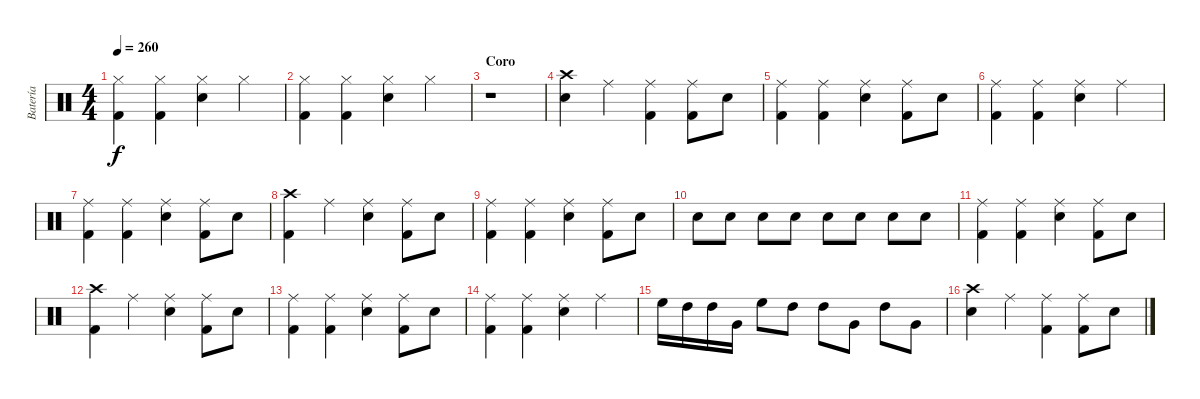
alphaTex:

\track ("Batería" "Batería") {instrument percussion}
\staff {score}
\articulation defaults
\ts (4 4)
\tempo 260
\clef neutral
\ks c
("Kick (hit) 2" "Hi-Hat (closed)").4{dy f} ("Kick (hit) 2" "Hi-Hat (closed)").4 ("Snare (hit) 2" "Hi-Hat (closed)").4 "Hi-Hat (closed)".4 |
("Kick (hit) 2" "Hi-Hat (closed)").4 ("Kick (hit) 2" "Hi-Hat (closed)").4 ("Snare (hit) 2" "Hi-Hat (closed)").4 "Hi-Hat (closed)".4 |
\section ("" "Coro")
r.1 |
("Snare (hit) 2" "Crash high (hit)").4 "Ride (middle)".4 ("Kick (hit) 2" "Ride (middle)").4 ("Kick (hit) 2" "Ride (middle)").8 "Snare (hit) 2".8 |
("Kick (hit) 2" "Ride (middle)").4 ("Kick (hit) 2" "Ride (middle)").4 ("Snare (hit) 2" "Ride (middle)").4 ("Kick (hit) 2" "Ride (middle)").8 "Snare (hit) 2".8 |
("Kick (hit) 2" "Ride (middle)").4 ("Kick (hit) 2" "Ride (middle)").4 ("Snare (hit) 2" "Ride (middle)").4 "Ride (middle)".4 |
("Kick (hit) 2" "Ride (middle)").4 ("Kick (hit) 2" "Ride (middle)").4 ("Snare (hit) 2" "Ride (middle)").4 ("Kick (hit) 2" "Ride (middle)").8 "Snare (hit) 2".8 |
("Kick (hit) 2" "Crash high (hit)").4 "Ride (middle)".4 ("Snare (hit) 2" "Ride (middle)").4 ("Kick (hit) 2" "Ride (middle)").8 "Snare (hit) 2".8 |
("Kick (hit) 2" "Ride (middle)").4 ("Kick (hit) 2" "Ride (middle)").4 ("Snare (hit) 2" "Ride (middle)").4 ("Kick (hit) 2" "Ride (middle)").8 "Snare (hit) 2".8 |
"Snare (hit) 2".8 "Snare (hit) 2".8 "Snare (hit) 2".8 "Snare (hit) 2".8 "Snare (hit) 2".8 "Snare (hit) 2".8 "Snare (hit) 2".8 "Snare (hit) 2".8 |
("Kick (hit) 2" "Ride (middle)").4 ("Kick (hit) 2" "Ride (middle)").4 ("Snare (hit) 2" "Ride (middle)").4 ("Kick (hit) 2" "Ride (middle)").8 "Snare (hit) 2".8 |
("Kick (hit) 2" "Crash high (hit)").4 "Ride (middle)".4 ("Snare (hit) 2" "Ride (middle)").4 ("Kick (hit) 2" "Ride (middle)").8 "Snare (hit) 2".8 |
("Kick (hit) 2" "Ride (middle)").4 ("Kick (hit) 2" "Ride (middle)").4 ("Snare (hit) 2" "Ride (middle)").4 ("Kick (hit) 2" "Ride (middle)").8 "Snare (hit) 2".8 |
("Kick (hit) 2" "Ride (middle)").4 ("Kick (hit) 2" "Ride (middle)").4 ("Snare (hit) 2" "Ride (middle)").4 "Ride (middle)".4 |
"High Floor Tom (hit)".16 "High Tom (hit)".16 "High Tom (hit)".16 "Very Low Tom (hit)".16 "High Floor Tom (hit)".8 "High Tom (hit)".8 "High Tom (hit)".8 "Very Low Tom (hit)".8 "High Tom (hit)".8 "Very Low Tom (hit)".8 |
("Snare (hit) 2" "Crash high (hit)").4 "Ride (middle)".4 ("Kick (hit) 2" "Ride (middle)").4 ("Kick (hit) 2" "Ride (middle)").8 "Snare (hit) 2".8
